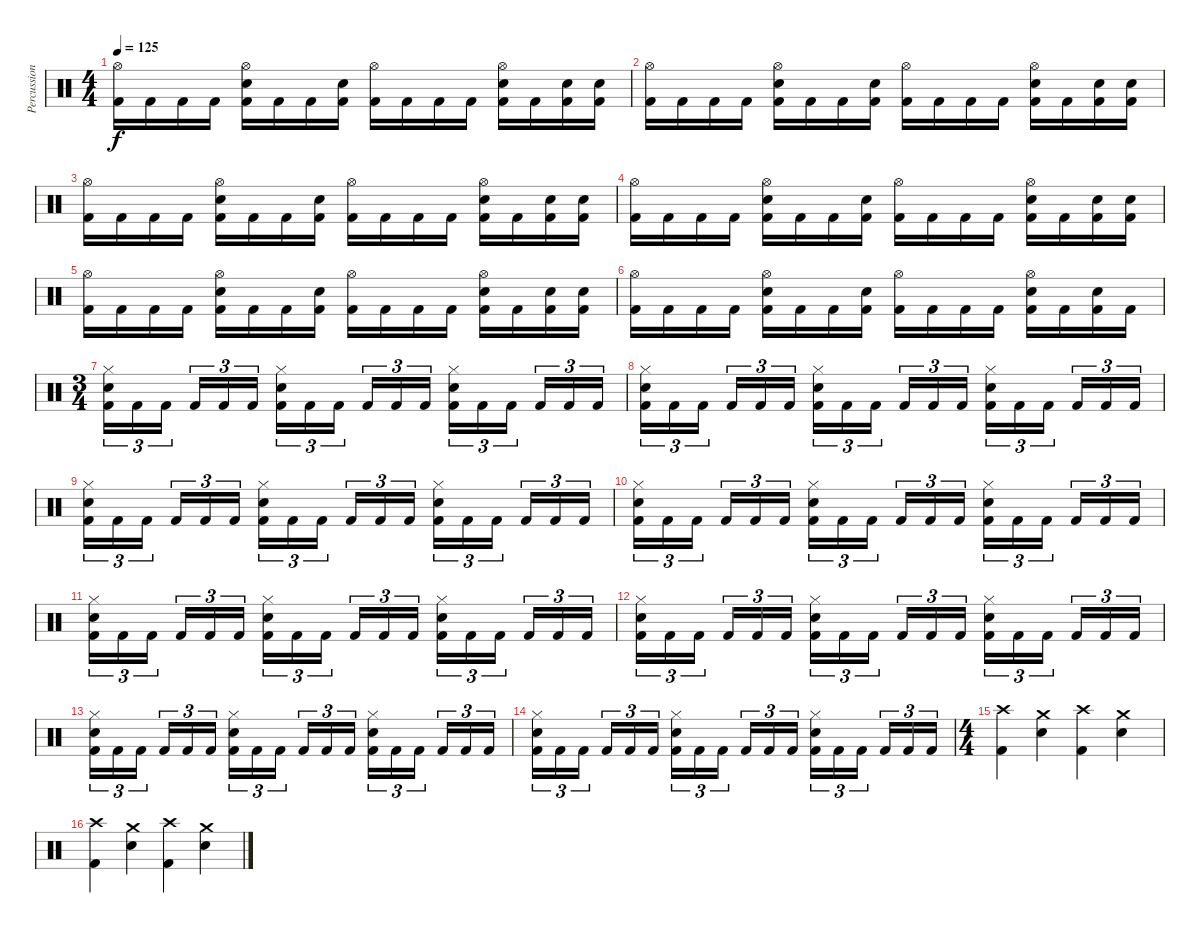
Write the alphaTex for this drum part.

\track ("Percussion - [Drums]" "Percussion") {instrument percussion}
\staff {score}
\articulation defaults
\ts (4 4)
\tempo 125
\clef neutral
\ks c
("Hi-Hat (open)" "Kick (hit) 2").16{dy f} "Kick (hit) 2".16 "Kick (hit) 2".16 "Kick (hit) 2".16 ("Hi-Hat (open)" "Snare (hit) 2" "Kick (hit) 2").16 "Kick (hit) 2".16 "Kick (hit) 2".16 ("Snare (hit) 2" "Kick (hit) 2").16 ("Hi-Hat (open)" "Kick (hit) 2").16 "Kick (hit) 2".16 "Kick (hit) 2".16 "Kick (hit) 2".16 ("Hi-Hat (open)" "Snare (hit) 2" "Kick (hit) 2").16 "Kick (hit) 2".16 ("Snare (hit) 2" "Kick (hit) 2").16 ("Snare (hit) 2" "Kick (hit) 2").16 |
("Hi-Hat (open)" "Kick (hit) 2").16 "Kick (hit) 2".16 "Kick (hit) 2".16 "Kick (hit) 2".16 ("Hi-Hat (open)" "Snare (hit) 2" "Kick (hit) 2").16 "Kick (hit) 2".16 "Kick (hit) 2".16 ("Snare (hit) 2" "Kick (hit) 2").16 ("Hi-Hat (open)" "Kick (hit) 2").16 "Kick (hit) 2".16 "Kick (hit) 2".16 "Kick (hit) 2".16 ("Hi-Hat (open)" "Snare (hit) 2" "Kick (hit) 2").16 "Kick (hit) 2".16 ("Snare (hit) 2" "Kick (hit) 2").16 ("Snare (hit) 2" "Kick (hit) 2").16 |
("Hi-Hat (open)" "Kick (hit) 2").16 "Kick (hit) 2".16 "Kick (hit) 2".16 "Kick (hit) 2".16 ("Hi-Hat (open)" "Snare (hit) 2" "Kick (hit) 2").16 "Kick (hit) 2".16 "Kick (hit) 2".16 ("Snare (hit) 2" "Kick (hit) 2").16 ("Hi-Hat (open)" "Kick (hit) 2").16 "Kick (hit) 2".16 "Kick (hit) 2".16 "Kick (hit) 2".16 ("Hi-Hat (open)" "Snare (hit) 2" "Kick (hit) 2").16 "Kick (hit) 2".16 ("Snare (hit) 2" "Kick (hit) 2").16 ("Snare (hit) 2" "Kick (hit) 2").16 |
("Hi-Hat (open)" "Kick (hit) 2").16 "Kick (hit) 2".16 "Kick (hit) 2".16 "Kick (hit) 2".16 ("Hi-Hat (open)" "Snare (hit) 2" "Kick (hit) 2").16 "Kick (hit) 2".16 "Kick (hit) 2".16 ("Snare (hit) 2" "Kick (hit) 2").16 ("Hi-Hat (open)" "Kick (hit) 2").16 "Kick (hit) 2".16 "Kick (hit) 2".16 "Kick (hit) 2".16 ("Hi-Hat (open)" "Snare (hit) 2" "Kick (hit) 2").16 "Kick (hit) 2".16 ("Snare (hit) 2" "Kick (hit) 2").16 ("Snare (hit) 2" "Kick (hit) 2").16 |
("Hi-Hat (open)" "Kick (hit) 2").16 "Kick (hit) 2".16 "Kick (hit) 2".16 "Kick (hit) 2".16 ("Hi-Hat (open)" "Snare (hit) 2" "Kick (hit) 2").16 "Kick (hit) 2".16 "Kick (hit) 2".16 ("Snare (hit) 2" "Kick (hit) 2").16 ("Hi-Hat (open)" "Kick (hit) 2").16 "Kick (hit) 2".16 "Kick (hit) 2".16 "Kick (hit) 2".16 ("Hi-Hat (open)" "Snare (hit) 2" "Kick (hit) 2").16 "Kick (hit) 2".16 ("Snare (hit) 2" "Kick (hit) 2").16 ("Snare (hit) 2" "Kick (hit) 2").16 |
("Hi-Hat (open)" "Kick (hit) 2").16 "Kick (hit) 2".16 "Kick (hit) 2".16 "Kick (hit) 2".16 ("Hi-Hat (open)" "Snare (hit) 2" "Kick (hit) 2").16 "Kick (hit) 2".16 "Kick (hit) 2".16 ("Snare (hit) 2" "Kick (hit) 2").16 ("Hi-Hat (open)" "Kick (hit) 2").16 "Kick (hit) 2".16 "Kick (hit) 2".16 "Kick (hit) 2".16 ("Hi-Hat (open)" "Snare (hit) 2" "Kick (hit) 2").16 "Kick (hit) 2".16 ("Snare (hit) 2" "Kick (hit) 2").16 "Kick (hit) 2".16 |
\ts (3 4)
("Hi-Hat (closed)" "Snare (hit) 2" "Kick (hit) 2").16{tu (3 2)} "Kick (hit) 2".16{tu (3 2)} "Kick (hit) 2".16{tu (3 2)} "Kick (hit) 2".16{tu (3 2)} "Kick (hit) 2".16{tu (3 2)} "Kick (hit) 2".16{tu (3 2)} ("Hi-Hat (closed)" "Snare (hit) 2" "Kick (hit) 2").16{tu (3 2)} "Kick (hit) 2".16{tu (3 2)} "Kick (hit) 2".16{tu (3 2)} "Kick (hit) 2".16{tu (3 2)} "Kick (hit) 2".16{tu (3 2)} "Kick (hit) 2".16{tu (3 2)} ("Hi-Hat (closed)" "Snare (hit) 2" "Kick (hit) 2").16{tu (3 2)} "Kick (hit) 2".16{tu (3 2)} "Kick (hit) 2".16{tu (3 2)} "Kick (hit) 2".16{tu (3 2)} "Kick (hit) 2".16{tu (3 2)} "Kick (hit) 2".16{tu (3 2)} |
("Hi-Hat (closed)" "Snare (hit) 2" "Kick (hit) 2").16{tu (3 2)} "Kick (hit) 2".16{tu (3 2)} "Kick (hit) 2".16{tu (3 2)} "Kick (hit) 2".16{tu (3 2)} "Kick (hit) 2".16{tu (3 2)} "Kick (hit) 2".16{tu (3 2)} ("Hi-Hat (closed)" "Snare (hit) 2" "Kick (hit) 2").16{tu (3 2)} "Kick (hit) 2".16{tu (3 2)} "Kick (hit) 2".16{tu (3 2)} "Kick (hit) 2".16{tu (3 2)} "Kick (hit) 2".16{tu (3 2)} "Kick (hit) 2".16{tu (3 2)} ("Hi-Hat (closed)" "Snare (hit) 2" "Kick (hit) 2").16{tu (3 2)} "Kick (hit) 2".16{tu (3 2)} "Kick (hit) 2".16{tu (3 2)} "Kick (hit) 2".16{tu (3 2)} "Kick (hit) 2".16{tu (3 2)} "Kick (hit) 2".16{tu (3 2)} |
("Hi-Hat (closed)" "Snare (hit) 2" "Kick (hit) 2").16{tu (3 2)} "Kick (hit) 2".16{tu (3 2)} "Kick (hit) 2".16{tu (3 2)} "Kick (hit) 2".16{tu (3 2)} "Kick (hit) 2".16{tu (3 2)} "Kick (hit) 2".16{tu (3 2)} ("Hi-Hat (closed)" "Snare (hit) 2" "Kick (hit) 2").16{tu (3 2)} "Kick (hit) 2".16{tu (3 2)} "Kick (hit) 2".16{tu (3 2)} "Kick (hit) 2".16{tu (3 2)} "Kick (hit) 2".16{tu (3 2)} "Kick (hit) 2".16{tu (3 2)} ("Hi-Hat (closed)" "Snare (hit) 2" "Kick (hit) 2").16{tu (3 2)} "Kick (hit) 2".16{tu (3 2)} "Kick (hit) 2".16{tu (3 2)} "Kick (hit) 2".16{tu (3 2)} "Kick (hit) 2".16{tu (3 2)} "Kick (hit) 2".16{tu (3 2)} |
("Hi-Hat (closed)" "Snare (hit) 2" "Kick (hit) 2").16{tu (3 2)} "Kick (hit) 2".16{tu (3 2)} "Kick (hit) 2".16{tu (3 2)} "Kick (hit) 2".16{tu (3 2)} "Kick (hit) 2".16{tu (3 2)} "Kick (hit) 2".16{tu (3 2)} ("Hi-Hat (closed)" "Snare (hit) 2" "Kick (hit) 2").16{tu (3 2)} "Kick (hit) 2".16{tu (3 2)} "Kick (hit) 2".16{tu (3 2)} "Kick (hit) 2".16{tu (3 2)} "Kick (hit) 2".16{tu (3 2)} "Kick (hit) 2".16{tu (3 2)} ("Hi-Hat (closed)" "Snare (hit) 2" "Kick (hit) 2").16{tu (3 2)} "Kick (hit) 2".16{tu (3 2)} "Kick (hit) 2".16{tu (3 2)} "Kick (hit) 2".16{tu (3 2)} "Kick (hit) 2".16{tu (3 2)} "Kick (hit) 2".16{tu (3 2)} |
("Hi-Hat (closed)" "Snare (hit) 2" "Kick (hit) 2").16{tu (3 2)} "Kick (hit) 2".16{tu (3 2)} "Kick (hit) 2".16{tu (3 2)} "Kick (hit) 2".16{tu (3 2)} "Kick (hit) 2".16{tu (3 2)} "Kick (hit) 2".16{tu (3 2)} ("Hi-Hat (closed)" "Snare (hit) 2" "Kick (hit) 2").16{tu (3 2)} "Kick (hit) 2".16{tu (3 2)} "Kick (hit) 2".16{tu (3 2)} "Kick (hit) 2".16{tu (3 2)} "Kick (hit) 2".16{tu (3 2)} "Kick (hit) 2".16{tu (3 2)} ("Hi-Hat (closed)" "Snare (hit) 2" "Kick (hit) 2").16{tu (3 2)} "Kick (hit) 2".16{tu (3 2)} "Kick (hit) 2".16{tu (3 2)} "Kick (hit) 2".16{tu (3 2)} "Kick (hit) 2".16{tu (3 2)} "Kick (hit) 2".16{tu (3 2)} |
("Hi-Hat (closed)" "Snare (hit) 2" "Kick (hit) 2").16{tu (3 2)} "Kick (hit) 2".16{tu (3 2)} "Kick (hit) 2".16{tu (3 2)} "Kick (hit) 2".16{tu (3 2)} "Kick (hit) 2".16{tu (3 2)} "Kick (hit) 2".16{tu (3 2)} ("Hi-Hat (closed)" "Snare (hit) 2" "Kick (hit) 2").16{tu (3 2)} "Kick (hit) 2".16{tu (3 2)} "Kick (hit) 2".16{tu (3 2)} "Kick (hit) 2".16{tu (3 2)} "Kick (hit) 2".16{tu (3 2)} "Kick (hit) 2".16{tu (3 2)} ("Hi-Hat (closed)" "Snare (hit) 2" "Kick (hit) 2").16{tu (3 2)} "Kick (hit) 2".16{tu (3 2)} "Kick (hit) 2".16{tu (3 2)} "Kick (hit) 2".16{tu (3 2)} "Kick (hit) 2".16{tu (3 2)} "Kick (hit) 2".16{tu (3 2)} |
("Hi-Hat (closed)" "Snare (hit) 2" "Kick (hit) 2").16{tu (3 2)} "Kick (hit) 2".16{tu (3 2)} "Kick (hit) 2".16{tu (3 2)} "Kick (hit) 2".16{tu (3 2)} "Kick (hit) 2".16{tu (3 2)} "Kick (hit) 2".16{tu (3 2)} ("Hi-Hat (closed)" "Snare (hit) 2" "Kick (hit) 2").16{tu (3 2)} "Kick (hit) 2".16{tu (3 2)} "Kick (hit) 2".16{tu (3 2)} "Kick (hit) 2".16{tu (3 2)} "Kick (hit) 2".16{tu (3 2)} "Kick (hit) 2".16{tu (3 2)} ("Hi-Hat (closed)" "Snare (hit) 2" "Kick (hit) 2").16{tu (3 2)} "Kick (hit) 2".16{tu (3 2)} "Kick (hit) 2".16{tu (3 2)} "Kick (hit) 2".16{tu (3 2)} "Kick (hit) 2".16{tu (3 2)} "Kick (hit) 2".16{tu (3 2)} |
("Hi-Hat (closed)" "Snare (hit) 2" "Kick (hit) 2").16{tu (3 2)} "Kick (hit) 2".16{tu (3 2)} "Kick (hit) 2".16{tu (3 2)} "Kick (hit) 2".16{tu (3 2)} "Kick (hit) 2".16{tu (3 2)} "Kick (hit) 2".16{tu (3 2)} ("Hi-Hat (closed)" "Snare (hit) 2" "Kick (hit) 2").16{tu (3 2)} "Kick (hit) 2".16{tu (3 2)} "Kick (hit) 2".16{tu (3 2)} "Kick (hit) 2".16{tu (3 2)} "Kick (hit) 2".16{tu (3 2)} "Kick (hit) 2".16{tu (3 2)} ("Hi-Hat (closed)" "Snare (hit) 2" "Kick (hit) 2").16{tu (3 2)} "Kick (hit) 2".16{tu (3 2)} "Kick (hit) 2".16{tu (3 2)} "Kick (hit) 2".16{tu (3 2)} "Kick (hit) 2".16{tu (3 2)} "Kick (hit) 2".16{tu (3 2)} |
\ts (4 4)
("Crash high (hit)" "Kick (hit) 2").4 ("Crash medium (hit)" "Snare (hit) 2").4 ("Crash high (hit)" "Kick (hit) 2").4 ("Crash medium (hit)" "Snare (hit) 2").4 |
("Crash high (hit)" "Kick (hit) 2").4 ("Crash medium (hit)" "Snare (hit) 2").4 ("Crash high (hit)" "Kick (hit) 2").4 ("Crash medium (hit)" "Snare (hit) 2").4
